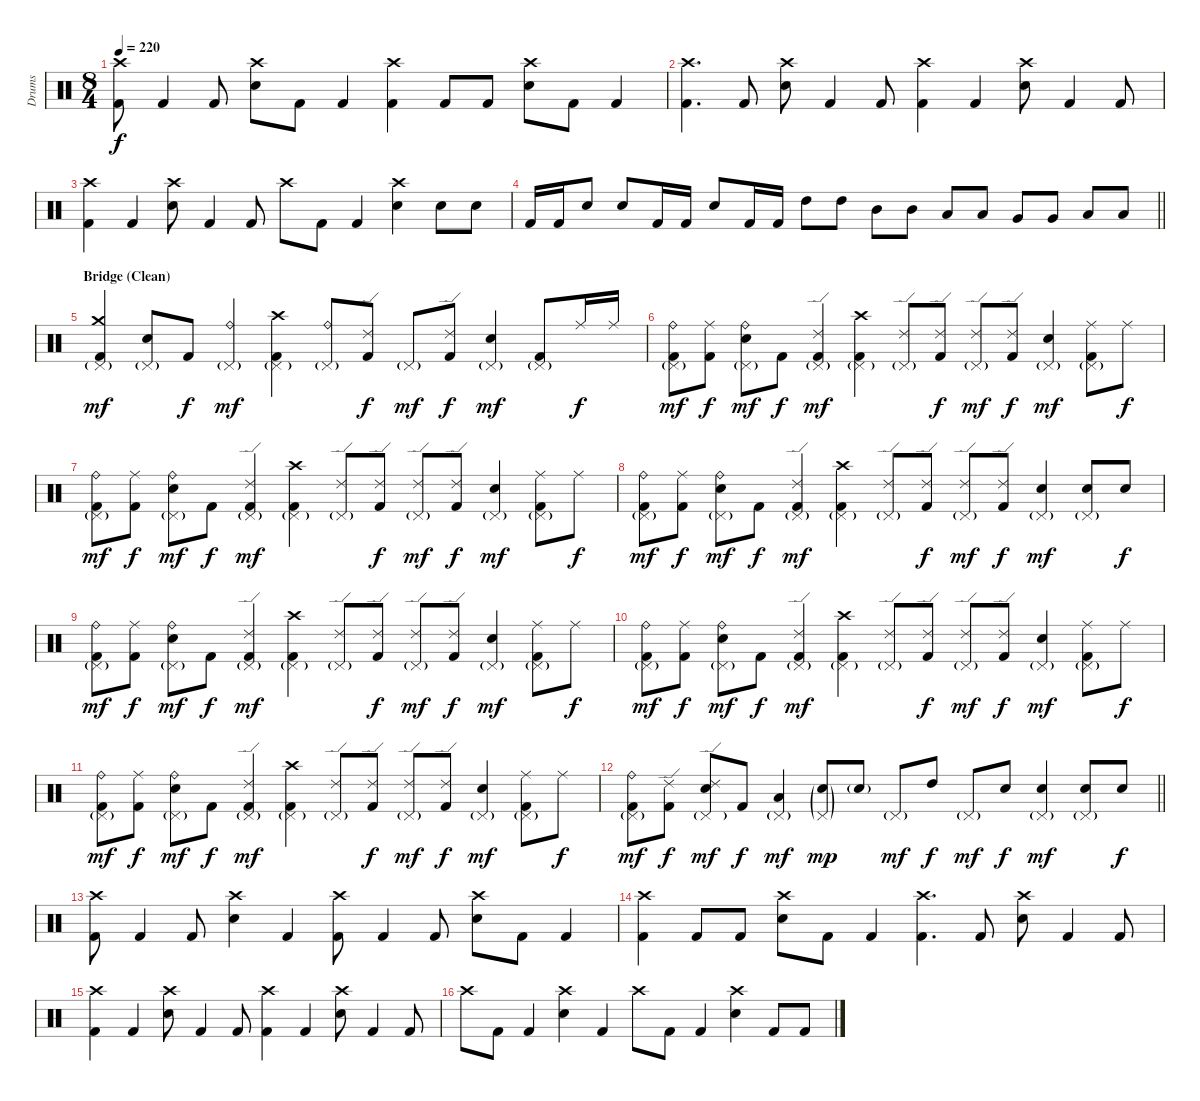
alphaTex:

\track ("Drums" "Drums") {instrument percussion}
\staff {score}
\articulation defaults
\ts (8 4)
\tempo 220
\clef neutral
\ks c
("Crash high (hit)" "Kick (hit) 2").8{dy f} "Kick (hit) 2".4 "Kick (hit) 2".8 ("Crash high (hit)" "Electric Snare (hit)").8 "Kick (hit) 2".8 "Kick (hit) 2".4 ("Crash high (hit)" "Kick (hit) 2").4 "Kick (hit) 2".8 "Kick (hit) 2".8 ("Crash high (hit)" "Electric Snare (hit)").8 "Kick (hit) 2".8 "Kick (hit) 2".4 |
("Crash high (hit)" "Kick (hit) 2").4{d} "Kick (hit) 2".8 ("Crash high (hit)" "Electric Snare (hit)").8 "Kick (hit) 2".4 "Kick (hit) 2".8 ("Crash high (hit)" "Kick (hit) 2").4 "Kick (hit) 2".4 ("Crash high (hit)" "Electric Snare (hit)").8 "Kick (hit) 2".4 "Kick (hit) 2".8 |
("Crash high (hit)" "Kick (hit) 2").4 "Kick (hit) 2".4 ("Crash high (hit)" "Electric Snare (hit)").8 "Kick (hit) 2".4 "Kick (hit) 2".8 "Crash high (hit)".8 "Kick (hit) 2".8 "Kick (hit) 2".4 ("Crash high (hit)" "Electric Snare (hit)").4 "Electric Snare (hit)".8 "Electric Snare (hit)".8 |
\barLineRight lightlight "Kick (hit) 2".16 "Kick (hit) 2".16 "Electric Snare (hit)".8 "Electric Snare (hit)".8 "Kick (hit) 2".16 "Kick (hit) 2".16 "Electric Snare (hit)".8 "Kick (hit) 2".16 "Kick (hit) 2".16 "High Tom (hit)".8 "High Tom (hit)".8 "Mid Tom (hit)".8 "Mid Tom (hit)".8 "Low Tom (hit)".8 "Low Tom (hit)".8 "Very Low Tom (hit)".8 "Very Low Tom (hit)".8 "Low Floor Tom (hit)".8 "Low Floor Tom (hit)".8
|
\section ("" "Bridge (Clean)")
("Crash medium (hit)" "Pedal Hi-Hat (hit)"{g} "Kick (hit) 2").4{dy mf} ("Pedal Hi-Hat (hit)"{g} "Electric Snare (hit)").8 "Kick (hit) 2".8{dy f} ("Ride (bell)" "Pedal Hi-Hat (hit)"{g}).4{dy mf} ("Crash high (hit)" "Pedal Hi-Hat (hit)"{g} "Kick (hit) 2").4 ("Ride (bell)" "Pedal Hi-Hat (hit)"{g}).8 ("Ride (edge) 2" "Kick (hit) 2").8{dy f} "Pedal Hi-Hat (hit)"{g}.8{dy mf} ("Ride (edge) 2" "Kick (hit) 2").8{dy f} ("Pedal Hi-Hat (hit)"{g} "Electric Snare (hit)").4{dy mf} ("Pedal Hi-Hat (hit)"{g} "Kick (hit) 2").8 "Ride (middle)".16{dy f} "Ride (middle)".16 |
("Ride (bell)" "Pedal Hi-Hat (hit)"{g} "Kick (hit) 2").8{dy mf} ("Ride (middle)" "Kick (hit) 2").8{dy f} ("Ride (bell)" "Pedal Hi-Hat (hit)"{g} "Electric Snare (hit)").8{dy mf} "Kick (hit) 2".8{dy f} ("Ride (edge) 2" "Pedal Hi-Hat (hit)"{g} "Kick (hit) 2").4{dy mf} ("Crash high (hit)" "Pedal Hi-Hat (hit)"{g} "Kick (hit) 2").4 ("Ride (edge) 2" "Pedal Hi-Hat (hit)"{g}).8 ("Ride (edge) 2" "Kick (hit) 2").8{dy f} ("Ride (edge) 2" "Pedal Hi-Hat (hit)"{g}).8{dy mf} ("Ride (edge) 2" "Kick (hit) 2").8{dy f} ("Pedal Hi-Hat (hit)"{g} "Electric Snare (hit)").4{dy mf} ("Ride (middle)" "Pedal Hi-Hat (hit)"{g} "Kick (hit) 2").8 "Ride (middle)".8{dy f} |
("Ride (bell)" "Pedal Hi-Hat (hit)"{g} "Kick (hit) 2").8{dy mf} ("Ride (middle)" "Kick (hit) 2").8{dy f} ("Ride (bell)" "Pedal Hi-Hat (hit)"{g} "Electric Snare (hit)").8{dy mf} "Kick (hit) 2".8{dy f} ("Ride (edge) 2" "Pedal Hi-Hat (hit)"{g} "Kick (hit) 2").4{dy mf} ("Crash high (hit)" "Pedal Hi-Hat (hit)"{g} "Kick (hit) 2").4 ("Ride (edge) 2" "Pedal Hi-Hat (hit)"{g}).8 ("Ride (edge) 2" "Kick (hit) 2").8{dy f} ("Ride (edge) 2" "Pedal Hi-Hat (hit)"{g}).8{dy mf} ("Ride (edge) 2" "Kick (hit) 2").8{dy f} ("Pedal Hi-Hat (hit)"{g} "Electric Snare (hit)").4{dy mf} ("Ride (middle)" "Pedal Hi-Hat (hit)"{g} "Kick (hit) 2").8 "Ride (middle)".8{dy f} |
("Ride (bell)" "Pedal Hi-Hat (hit)"{g} "Kick (hit) 2").8{dy mf} ("Ride (middle)" "Kick (hit) 2").8{dy f} ("Ride (bell)" "Pedal Hi-Hat (hit)"{g} "Electric Snare (hit)").8{dy mf} "Kick (hit) 2".8{dy f} ("Ride (edge) 2" "Pedal Hi-Hat (hit)"{g} "Kick (hit) 2").4{dy mf} ("Crash high (hit)" "Pedal Hi-Hat (hit)"{g} "Kick (hit) 2").4 ("Ride (edge) 2" "Pedal Hi-Hat (hit)"{g}).8 ("Ride (edge) 2" "Kick (hit) 2").8{dy f} ("Ride (edge) 2" "Pedal Hi-Hat (hit)"{g}).8{dy mf} ("Ride (edge) 2" "Kick (hit) 2").8{dy f} ("Pedal Hi-Hat (hit)"{g} "Electric Snare (hit)").4{dy mf} ("Pedal Hi-Hat (hit)"{g} "Electric Snare (hit)").8 "Electric Snare (hit)".8{dy f} |
("Ride (bell)" "Pedal Hi-Hat (hit)"{g} "Kick (hit) 2").8{dy mf} ("Ride (middle)" "Kick (hit) 2").8{dy f} ("Ride (bell)" "Pedal Hi-Hat (hit)"{g} "Electric Snare (hit)").8{dy mf} "Kick (hit) 2".8{dy f} ("Ride (edge) 2" "Pedal Hi-Hat (hit)"{g} "Kick (hit) 2").4{dy mf} ("Crash high (hit)" "Pedal Hi-Hat (hit)"{g} "Kick (hit) 2").4 ("Ride (edge) 2" "Pedal Hi-Hat (hit)"{g}).8 ("Ride (edge) 2" "Kick (hit) 2").8{dy f} ("Ride (edge) 2" "Pedal Hi-Hat (hit)"{g}).8{dy mf} ("Ride (edge) 2" "Kick (hit) 2").8{dy f} ("Pedal Hi-Hat (hit)"{g} "Electric Snare (hit)").4{dy mf} ("Ride (middle)" "Pedal Hi-Hat (hit)"{g} "Kick (hit) 2").8 "Ride (middle)".8{dy f} |
("Ride (bell)" "Pedal Hi-Hat (hit)"{g} "Kick (hit) 2").8{dy mf} ("Ride (middle)" "Kick (hit) 2").8{dy f} ("Ride (bell)" "Pedal Hi-Hat (hit)"{g} "Electric Snare (hit)").8{dy mf} "Kick (hit) 2".8{dy f} ("Ride (edge) 2" "Pedal Hi-Hat (hit)"{g} "Kick (hit) 2").4{dy mf} ("Crash high (hit)" "Pedal Hi-Hat (hit)"{g} "Kick (hit) 2").4 ("Ride (edge) 2" "Pedal Hi-Hat (hit)"{g}).8 ("Ride (edge) 2" "Kick (hit) 2").8{dy f} ("Ride (edge) 2" "Pedal Hi-Hat (hit)"{g}).8{dy mf} ("Ride (edge) 2" "Kick (hit) 2").8{dy f} ("Pedal Hi-Hat (hit)"{g} "Electric Snare (hit)").4{dy mf} ("Ride (middle)" "Pedal Hi-Hat (hit)"{g} "Kick (hit) 2").8 "Ride (middle)".8{dy f} |
("Ride (bell)" "Pedal Hi-Hat (hit)"{g} "Kick (hit) 2").8{dy mf} ("Ride (middle)" "Kick (hit) 2").8{dy f} ("Ride (bell)" "Pedal Hi-Hat (hit)"{g} "Electric Snare (hit)").8{dy mf} "Kick (hit) 2".8{dy f} ("Ride (edge) 2" "Pedal Hi-Hat (hit)"{g} "Kick (hit) 2").4{dy mf} ("Crash high (hit)" "Pedal Hi-Hat (hit)"{g} "Kick (hit) 2").4 ("Ride (edge) 2" "Pedal Hi-Hat (hit)"{g}).8 ("Ride (edge) 2" "Kick (hit) 2").8{dy f} ("Ride (edge) 2" "Pedal Hi-Hat (hit)"{g}).8{dy mf} ("Ride (edge) 2" "Kick (hit) 2").8{dy f} ("Pedal Hi-Hat (hit)"{g} "Electric Snare (hit)").4{dy mf} ("Ride (middle)" "Pedal Hi-Hat (hit)"{g} "Kick (hit) 2").8 "Ride (middle)".8{dy f} |
\barLineRight lightlight
("Ride (bell)" "Pedal Hi-Hat (hit)"{g} "Kick (hit) 2").8{dy mf} ("Ride (edge) 2" "Kick (hit) 2").8{dy f} ("Ride (edge) 2" "Pedal Hi-Hat (hit)"{g} "Electric Snare (hit)").8{dy mf} "Kick (hit) 2".8{dy f} ("Pedal Hi-Hat (hit)"{g} "Low Tom (hit)").4{dy mf} ("Pedal Hi-Hat (hit)"{g} "Electric Snare (hit)"{g}).8{dy mp} "Electric Snare (hit)"{g}.8 "Pedal Hi-Hat (hit)"{g}.8{dy mf} "High Tom (hit)".8{dy f} "Pedal Hi-Hat (hit)"{g}.8{dy mf} "Electric Snare (hit)".8{dy f} ("Pedal Hi-Hat (hit)"{g} "Electric Snare (hit)").4{dy mf} ("Pedal Hi-Hat (hit)"{g} "Electric Snare (hit)").8 "Electric Snare (hit)".8{dy f} |
("Crash high (hit)" "Kick (hit) 2").8 "Kick (hit) 2".4 "Kick (hit) 2".8 ("Crash high (hit)" "Electric Snare (hit)").4 "Kick (hit) 2".4 ("Crash high (hit)" "Kick (hit) 2").8 "Kick (hit) 2".4 "Kick (hit) 2".8 ("Crash high (hit)" "Electric Snare (hit)").8 "Kick (hit) 2".8 "Kick (hit) 2".4 |
("Crash high (hit)" "Kick (hit) 2").4 "Kick (hit) 2".8 "Kick (hit) 2".8 ("Crash high (hit)" "Electric Snare (hit)").8 "Kick (hit) 2".8 "Kick (hit) 2".4 ("Crash high (hit)" "Kick (hit) 2").4{d} "Kick (hit) 2".8 ("Crash high (hit)" "Electric Snare (hit)").8 "Kick (hit) 2".4 "Kick (hit) 2".8 |
("Crash high (hit)" "Kick (hit) 2").4 "Kick (hit) 2".4 ("Crash high (hit)" "Electric Snare (hit)").8 "Kick (hit) 2".4 "Kick (hit) 2".8 ("Crash high (hit)" "Kick (hit) 2").4 "Kick (hit) 2".4 ("Crash high (hit)" "Electric Snare (hit)").8 "Kick (hit) 2".4 "Kick (hit) 2".8 |
"Crash high (hit)".8 "Kick (hit) 2".8 "Kick (hit) 2".4 ("Crash high (hit)" "Electric Snare (hit)").4 "Kick (hit) 2".4 "Crash high (hit)".8 "Kick (hit) 2".8 "Kick (hit) 2".4 ("Crash high (hit)" "Electric Snare (hit)").4 "Kick (hit) 2".8 "Kick (hit) 2".8
